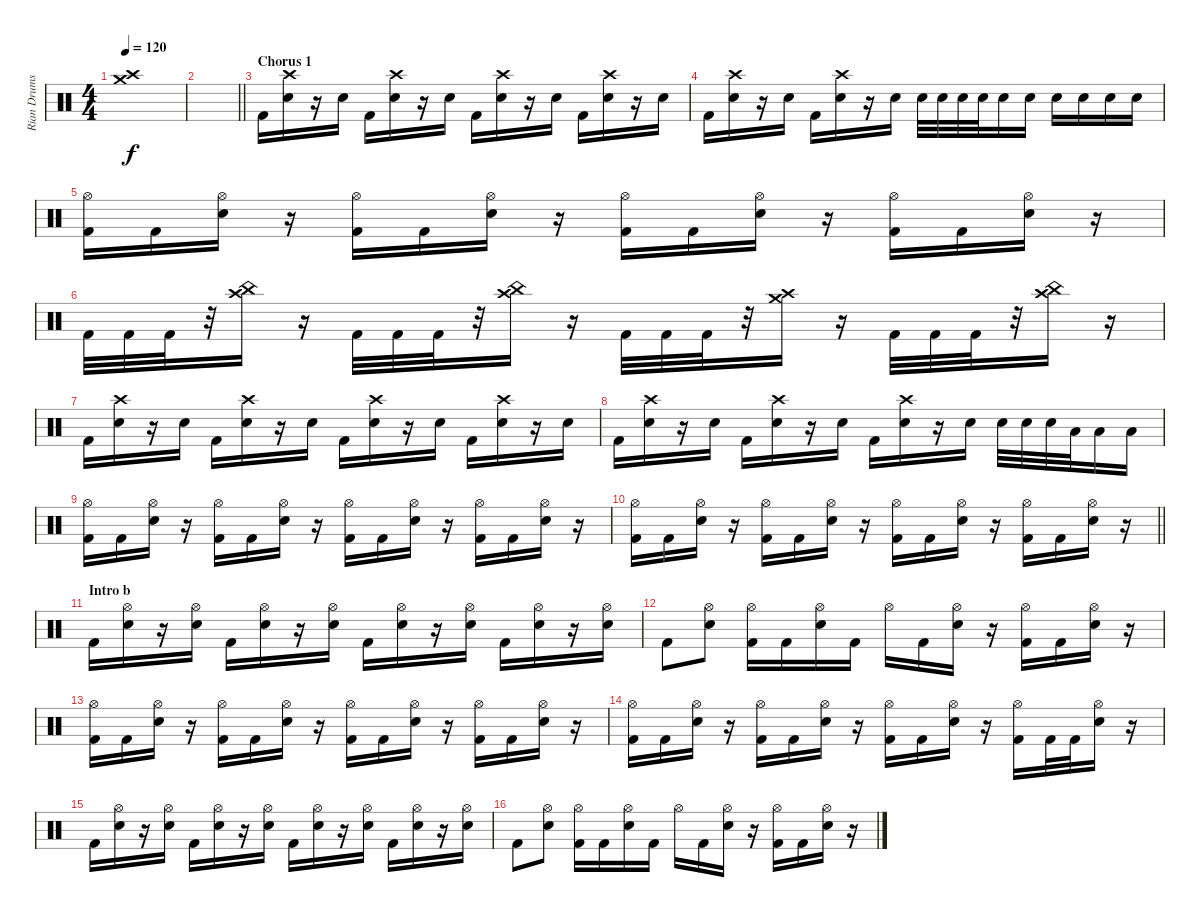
\track ("Rian Drums" "Rian Drums") {instrument percussion}
\staff {score}
\articulation defaults
\ts (4 4)
\tempo 120
\clef neutral
\ks c
("Crash high (hit)" "Crash medium (hit)").1{dy f} |
\barLineRight lightlight
|
\section ("" "Chorus 1")
"Kick (hit) 2".16 ("Crash high (hit)" "Electric Snare (hit)").16 r.16 "Electric Snare (hit)".16 "Kick (hit) 2".16 ("Crash high (hit)" "Electric Snare (hit)").16 r.16 "Electric Snare (hit)".16 "Kick (hit) 2".16 ("Crash high (hit)" "Electric Snare (hit)").16 r.16 "Electric Snare (hit)".16 "Kick (hit) 2".16 ("Crash high (hit)" "Electric Snare (hit)").16 r.16 "Electric Snare (hit)".16 |
"Kick (hit) 2".16 ("Crash high (hit)" "Electric Snare (hit)").16 r.16 "Electric Snare (hit)".16 "Kick (hit) 2".16 ("Crash high (hit)" "Electric Snare (hit)").16 r.16 "Electric Snare (hit)".16 "Electric Snare (hit)".32 "Electric Snare (hit)".32 "Electric Snare (hit)".32 "Electric Snare (hit)".32 "Electric Snare (hit)".16 "Electric Snare (hit)".16 "Electric Snare (hit)".16 "Electric Snare (hit)".16 "Electric Snare (hit)".16 "Electric Snare (hit)".16 |
("Hi-Hat (open)" "Kick (hit) 2").16 "Kick (hit) 2".16 ("Hi-Hat (open)" "Electric Snare (hit)").16 r.16 ("Hi-Hat (open)" "Kick (hit) 2").16 "Kick (hit) 2".16 ("Hi-Hat (open)" "Electric Snare (hit)").16 r.16 ("Hi-Hat (open)" "Kick (hit) 2").16 "Kick (hit) 2".16 ("Hi-Hat (open)" "Electric Snare (hit)").16 r.16 ("Hi-Hat (open)" "Kick (hit) 2").16 "Kick (hit) 2".16 ("Hi-Hat (open)" "Electric Snare (hit)").16 r.16 |
"Kick (hit) 2".32 "Kick (hit) 2".32 "Kick (hit) 2".32 r.32 ("Crash high (hit)" "China (hit)").16 r.16 "Kick (hit) 2".32 "Kick (hit) 2".32 "Kick (hit) 2".32 r.32 ("Crash high (hit)" "China (hit)").16 r.16 "Kick (hit) 2".32 "Kick (hit) 2".32 "Kick (hit) 2".32 r.32 ("Crash high (hit)" "Crash medium (hit)").16 r.16 "Kick (hit) 2".32 "Kick (hit) 2".32 "Kick (hit) 2".32 r.32 ("Crash high (hit)" "China (hit)").16 r.16 |
"Kick (hit) 2".16 ("Crash high (hit)" "Electric Snare (hit)").16 r.16 "Electric Snare (hit)".16 "Kick (hit) 2".16 ("Crash high (hit)" "Electric Snare (hit)").16 r.16 "Electric Snare (hit)".16 "Kick (hit) 2".16 ("Crash high (hit)" "Electric Snare (hit)").16 r.16 "Electric Snare (hit)".16 "Kick (hit) 2".16 ("Crash high (hit)" "Electric Snare (hit)").16 r.16 "Electric Snare (hit)".16 |
"Kick (hit) 2".16 ("Crash high (hit)" "Electric Snare (hit)").16 r.16 "Electric Snare (hit)".16 "Kick (hit) 2".16 ("Crash high (hit)" "Electric Snare (hit)").16 r.16 "Electric Snare (hit)".16 "Kick (hit) 2".16 ("Crash high (hit)" "Electric Snare (hit)").16 r.16 "Electric Snare (hit)".16 "Electric Snare (hit)".32 "Electric Snare (hit)".32 "Electric Snare (hit)".32 "Low Tom (hit)".32 "Low Tom (hit)".16 "Low Tom (hit)".16 |
("Hi-Hat (open)" "Kick (hit) 2").16 "Kick (hit) 2".16 ("Hi-Hat (open)" "Electric Snare (hit)").16 r.16 ("Hi-Hat (open)" "Kick (hit) 2").16 "Kick (hit) 2".16 ("Hi-Hat (open)" "Electric Snare (hit)").16 r.16 ("Hi-Hat (open)" "Kick (hit) 2").16 "Kick (hit) 2".16 ("Hi-Hat (open)" "Electric Snare (hit)").16 r.16 ("Hi-Hat (open)" "Kick (hit) 2").16 "Kick (hit) 2".16 ("Hi-Hat (open)" "Electric Snare (hit)").16 r.16 |
\barLineRight lightlight
("Hi-Hat (open)" "Kick (hit) 2").16 "Kick (hit) 2".16 ("Hi-Hat (open)" "Electric Snare (hit)").16 r.16 ("Hi-Hat (open)" "Kick (hit) 2").16 "Kick (hit) 2".16 ("Hi-Hat (open)" "Electric Snare (hit)").16 r.16 ("Hi-Hat (open)" "Kick (hit) 2").16 "Kick (hit) 2".16 ("Hi-Hat (open)" "Electric Snare (hit)").16 r.16 ("Hi-Hat (open)" "Kick (hit) 2").16 "Kick (hit) 2".16 ("Hi-Hat (open)" "Electric Snare (hit)").16 r.16 |
\section ("" "Intro b")
"Kick (hit) 2".16 ("Hi-Hat (open)" "Electric Snare (hit)").16 r.16 ("Hi-Hat (open)" "Electric Snare (hit)").16 "Kick (hit) 2".16 ("Hi-Hat (open)" "Electric Snare (hit)").16 r.16 ("Hi-Hat (open)" "Electric Snare (hit)").16 "Kick (hit) 2".16 ("Hi-Hat (open)" "Electric Snare (hit)").16 r.16 ("Hi-Hat (open)" "Electric Snare (hit)").16 "Kick (hit) 2".16 ("Hi-Hat (open)" "Electric Snare (hit)").16 r.16 ("Hi-Hat (open)" "Electric Snare (hit)").16 |
"Kick (hit) 2".8 ("Hi-Hat (open)" "Electric Snare (hit)").8 ("Hi-Hat (open)" "Kick (hit) 2").16 "Kick (hit) 2".16 ("Hi-Hat (open)" "Electric Snare (hit)").16 "Kick (hit) 2".16 "Hi-Hat (open)".16 "Kick (hit) 2".16 ("Hi-Hat (open)" "Electric Snare (hit)").16 r.16 ("Hi-Hat (open)" "Kick (hit) 2").16 "Kick (hit) 2".16 ("Hi-Hat (open)" "Electric Snare (hit)").16 r.16 |
("Hi-Hat (open)" "Kick (hit) 2").16 "Kick (hit) 2".16 ("Hi-Hat (open)" "Electric Snare (hit)").16 r.16 ("Hi-Hat (open)" "Kick (hit) 2").16 "Kick (hit) 2".16 ("Hi-Hat (open)" "Electric Snare (hit)").16 r.16 ("Hi-Hat (open)" "Kick (hit) 2").16 "Kick (hit) 2".16 ("Hi-Hat (open)" "Electric Snare (hit)").16 r.16 ("Hi-Hat (open)" "Kick (hit) 2").16 "Kick (hit) 2".16 ("Hi-Hat (open)" "Electric Snare (hit)").16 r.16 |
("Hi-Hat (open)" "Kick (hit) 2").16 "Kick (hit) 2".16 ("Hi-Hat (open)" "Electric Snare (hit)").16 r.16 ("Hi-Hat (open)" "Kick (hit) 2").16 "Kick (hit) 2".16 ("Hi-Hat (open)" "Electric Snare (hit)").16 r.16 ("Hi-Hat (open)" "Kick (hit) 2").16 "Kick (hit) 2".16 ("Hi-Hat (open)" "Electric Snare (hit)").16 r.16 ("Hi-Hat (open)" "Kick (hit) 2").16 "Kick (hit) 2".32 "Kick (hit) 2".32 ("Hi-Hat (open)" "Electric Snare (hit)").16 r.16 |
"Kick (hit) 2".16 ("Hi-Hat (open)" "Electric Snare (hit)").16 r.16 ("Hi-Hat (open)" "Electric Snare (hit)").16 "Kick (hit) 2".16 ("Hi-Hat (open)" "Electric Snare (hit)").16 r.16 ("Hi-Hat (open)" "Electric Snare (hit)").16 "Kick (hit) 2".16 ("Hi-Hat (open)" "Electric Snare (hit)").16 r.16 ("Hi-Hat (open)" "Electric Snare (hit)").16 "Kick (hit) 2".16 ("Hi-Hat (open)" "Electric Snare (hit)").16 r.16 ("Hi-Hat (open)" "Electric Snare (hit)").16 |
"Kick (hit) 2".8 ("Hi-Hat (open)" "Electric Snare (hit)").8 ("Hi-Hat (open)" "Kick (hit) 2").16 "Kick (hit) 2".16 ("Hi-Hat (open)" "Electric Snare (hit)").16 "Kick (hit) 2".16 "Hi-Hat (open)".16 "Kick (hit) 2".16 ("Hi-Hat (open)" "Electric Snare (hit)").16 r.16 ("Hi-Hat (open)" "Kick (hit) 2").16 "Kick (hit) 2".16 ("Hi-Hat (open)" "Electric Snare (hit)").16 r.16
